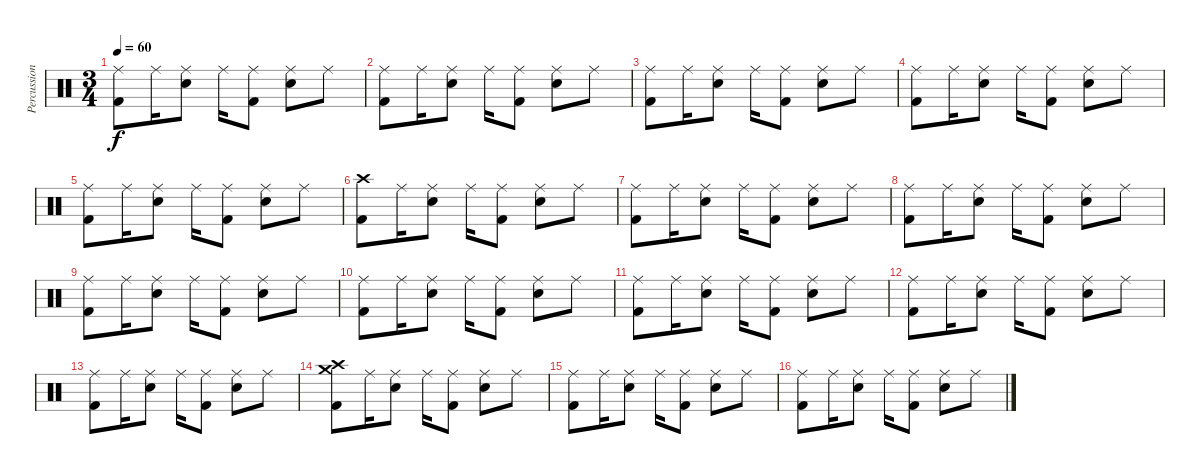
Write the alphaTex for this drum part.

\track ("Percussion" "Percussion") {instrument percussion}
\staff {score}
\articulation defaults
\ts (3 4)
\tempo 60
\clef neutral
\ks c
("Ride (middle)" "Kick (hit) 2").8{dy f} "Ride (middle)".16 ("Ride (middle)" "Snare (hit) 2").8 "Ride (middle)".16 ("Ride (middle)" "Kick (hit) 2").8 ("Ride (middle)" "Snare (hit) 2").8 "Ride (middle)".8 |
("Ride (middle)" "Kick (hit) 2").8 "Ride (middle)".16 ("Ride (middle)" "Snare (hit) 2").8 "Ride (middle)".16 ("Ride (middle)" "Kick (hit) 2").8 ("Ride (middle)" "Snare (hit) 2").8 "Ride (middle)".8 |
("Ride (middle)" "Kick (hit) 2").8 "Ride (middle)".16 ("Ride (middle)" "Snare (hit) 2").8 "Ride (middle)".16 ("Ride (middle)" "Kick (hit) 2").8 ("Ride (middle)" "Snare (hit) 2").8 "Ride (middle)".8 |
("Ride (middle)" "Kick (hit) 2").8 "Ride (middle)".16 ("Ride (middle)" "Snare (hit) 2").8 "Ride (middle)".16 ("Ride (middle)" "Kick (hit) 2").8 ("Ride (middle)" "Snare (hit) 2").8 "Ride (middle)".8 |
("Ride (middle)" "Kick (hit) 2").8 "Ride (middle)".16 ("Ride (middle)" "Snare (hit) 2").8 "Ride (middle)".16 ("Ride (middle)" "Kick (hit) 2").8 ("Ride (middle)" "Snare (hit) 2").8 "Ride (middle)".8 |
("Crash high (hit)" "Kick (hit) 2").8 "Ride (middle)".16 ("Ride (middle)" "Snare (hit) 2").8 "Ride (middle)".16 ("Ride (middle)" "Kick (hit) 2").8 ("Ride (middle)" "Snare (hit) 2").8 "Ride (middle)".8 |
("Ride (middle)" "Kick (hit) 2").8 "Ride (middle)".16 ("Ride (middle)" "Snare (hit) 2").8 "Ride (middle)".16 ("Ride (middle)" "Kick (hit) 2").8 ("Ride (middle)" "Snare (hit) 2").8 "Ride (middle)".8 |
("Ride (middle)" "Kick (hit) 2").8 "Ride (middle)".16 ("Ride (middle)" "Snare (hit) 2").8 "Ride (middle)".16 ("Ride (middle)" "Kick (hit) 2").8 ("Ride (middle)" "Snare (hit) 2").8 "Ride (middle)".8 |
("Ride (middle)" "Kick (hit) 2").8 "Ride (middle)".16 ("Ride (middle)" "Snare (hit) 2").8 "Ride (middle)".16 ("Ride (middle)" "Kick (hit) 2").8 ("Ride (middle)" "Snare (hit) 2").8 "Ride (middle)".8 |
("Ride (middle)" "Kick (hit) 2").8 "Ride (middle)".16 ("Ride (middle)" "Snare (hit) 2").8 "Ride (middle)".16 ("Ride (middle)" "Kick (hit) 2").8 ("Ride (middle)" "Snare (hit) 2").8 "Ride (middle)".8 |
("Ride (middle)" "Kick (hit) 2").8 "Ride (middle)".16 ("Ride (middle)" "Snare (hit) 2").8 "Ride (middle)".16 ("Ride (middle)" "Kick (hit) 2").8 ("Ride (middle)" "Snare (hit) 2").8 "Ride (middle)".8 |
("Ride (middle)" "Kick (hit) 2").8 "Ride (middle)".16 ("Ride (middle)" "Snare (hit) 2").8 "Ride (middle)".16 ("Ride (middle)" "Kick (hit) 2").8 ("Ride (middle)" "Snare (hit) 2").8 "Ride (middle)".8 |
("Ride (middle)" "Kick (hit) 2").8 "Ride (middle)".16 ("Ride (middle)" "Snare (hit) 2").8 "Ride (middle)".16 ("Ride (middle)" "Kick (hit) 2").8 ("Ride (middle)" "Snare (hit) 2").8 "Ride (middle)".8 |
("Crash high (hit)" "Crash medium (hit)" "Kick (hit) 2").8 "Ride (middle)".16 ("Ride (middle)" "Snare (hit) 2").8 "Ride (middle)".16 ("Ride (middle)" "Kick (hit) 2").8 ("Ride (middle)" "Snare (hit) 2").8 "Ride (middle)".8 |
("Ride (middle)" "Kick (hit) 2").8 "Ride (middle)".16 ("Ride (middle)" "Snare (hit) 2").8 "Ride (middle)".16 ("Ride (middle)" "Kick (hit) 2").8 ("Ride (middle)" "Snare (hit) 2").8 "Ride (middle)".8 |
("Ride (middle)" "Kick (hit) 2").8 "Ride (middle)".16 ("Ride (middle)" "Snare (hit) 2").8 "Ride (middle)".16 ("Ride (middle)" "Kick (hit) 2").8 ("Ride (middle)" "Snare (hit) 2").8 "Ride (middle)".8
